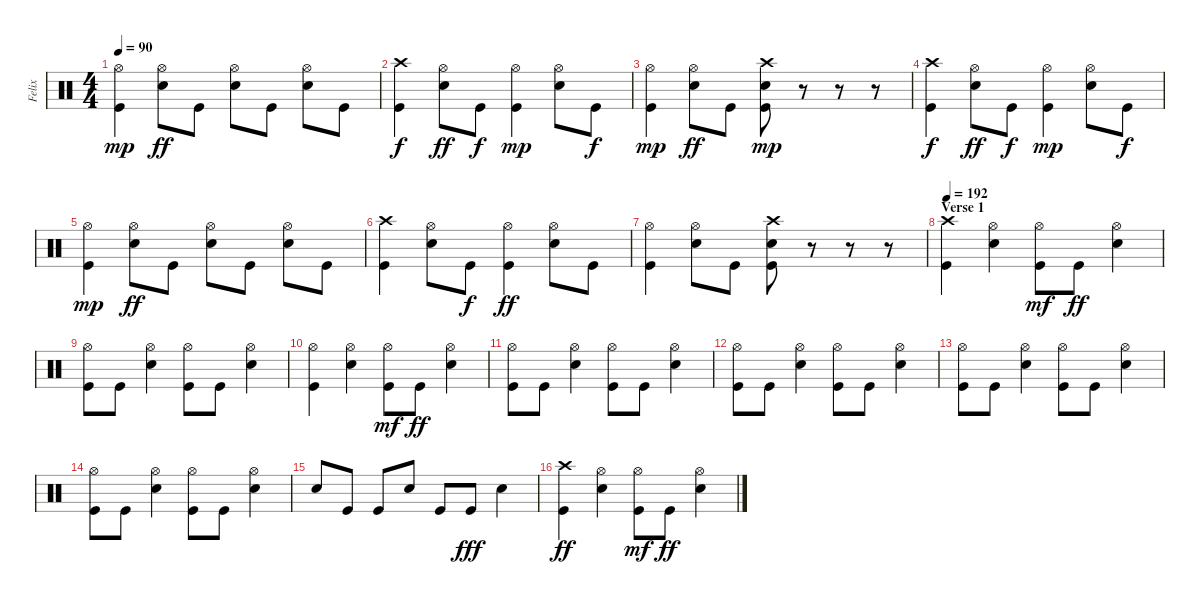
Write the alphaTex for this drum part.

\track ("Felix" "Felix") {instrument percussion}
\staff {score}
\articulation defaults
\ts (4 4)
\tempo 90
\clef neutral
\ks c
("Hi-Hat (open)" "Kick (hit)").4{dy mp} ("Hi-Hat (open)" "Snare (hit) 2").8{dy ff} "Kick (hit)".8 ("Hi-Hat (open)" "Snare (hit) 2").8 "Kick (hit)".8 ("Hi-Hat (open)" "Snare (hit) 2").8 "Kick (hit)".8 |
("Crash high (hit)" "Kick (hit)").4{dy f} ("Hi-Hat (open)" "Snare (hit) 2").8{dy ff} "Kick (hit)".8{dy f} ("Hi-Hat (open)" "Kick (hit)").4{dy mp} ("Hi-Hat (open)" "Snare (hit) 2").8 "Kick (hit)".8{dy f} |
("Hi-Hat (open)" "Kick (hit)").4{dy mp} ("Hi-Hat (open)" "Snare (hit) 2").8{dy ff} "Kick (hit)".8 ("Crash high (hit)" "Snare (hit) 2" "Kick (hit)").8{dy mp} r.8 r.8 r.8 |
("Crash high (hit)" "Kick (hit)").4{dy f} ("Hi-Hat (open)" "Snare (hit) 2").8{dy ff} "Kick (hit)".8{dy f} ("Hi-Hat (open)" "Kick (hit)").4{dy mp} ("Hi-Hat (open)" "Snare (hit) 2").8 "Kick (hit)".8{dy f} |
("Hi-Hat (open)" "Kick (hit)").4{dy mp} ("Hi-Hat (open)" "Snare (hit) 2").8{dy ff} "Kick (hit)".8 ("Hi-Hat (open)" "Snare (hit) 2").8 "Kick (hit)".8 ("Hi-Hat (open)" "Snare (hit) 2").8 "Kick (hit)".8 |
("Crash high (hit)" "Kick (hit)").4 ("Hi-Hat (open)" "Snare (hit) 2").8 "Kick (hit)".8{dy f} ("Hi-Hat (open)" "Kick (hit)").4{dy ff} ("Hi-Hat (open)" "Snare (hit) 2").8 "Kick (hit)".8 |
("Hi-Hat (open)" "Kick (hit)").4 ("Hi-Hat (open)" "Snare (hit) 2").8 "Kick (hit)".8 ("Crash high (hit)" "Snare (hit) 2" "Kick (hit)").8 r.8 r.8 r.8 |
\section ("" "Verse 1")
\tempo 192
("Crash high (hit)" "Kick (hit)").4 ("Hi-Hat (open)" "Snare (hit) 2").4 ("Hi-Hat (open)" "Kick (hit)").8{dy mf} "Kick (hit)".8{dy ff} ("Hi-Hat (open)" "Snare (hit) 2").4 |
("Hi-Hat (open)" "Kick (hit)").8 "Kick (hit)".8 ("Hi-Hat (open)" "Snare (hit) 2").4 ("Hi-Hat (open)" "Kick (hit)").8 "Kick (hit)".8 ("Hi-Hat (open)" "Snare (hit) 2").4 |
("Hi-Hat (open)" "Kick (hit)").4 ("Hi-Hat (open)" "Snare (hit) 2").4 ("Hi-Hat (open)" "Kick (hit)").8{dy mf} "Kick (hit)".8{dy ff} ("Hi-Hat (open)" "Snare (hit) 2").4 |
("Hi-Hat (open)" "Kick (hit)").8 "Kick (hit)".8 ("Hi-Hat (open)" "Snare (hit) 2").4 ("Hi-Hat (open)" "Kick (hit)").8 "Kick (hit)".8 ("Hi-Hat (open)" "Snare (hit) 2").4 |
("Hi-Hat (open)" "Kick (hit)").8 "Kick (hit)".8 ("Hi-Hat (open)" "Snare (hit) 2").4 ("Hi-Hat (open)" "Kick (hit)").8 "Kick (hit)".8 ("Hi-Hat (open)" "Snare (hit) 2").4 |
("Hi-Hat (open)" "Kick (hit)").8 "Kick (hit)".8 ("Hi-Hat (open)" "Snare (hit) 2").4 ("Hi-Hat (open)" "Kick (hit)").8 "Kick (hit)".8 ("Hi-Hat (open)" "Snare (hit) 2").4 |
("Hi-Hat (open)" "Kick (hit)").8 "Kick (hit)".8 ("Hi-Hat (open)" "Snare (hit) 2").4 ("Hi-Hat (open)" "Kick (hit)").8 "Kick (hit)".8 ("Hi-Hat (open)" "Snare (hit) 2").4 |
"Snare (hit) 2".8 "Kick (hit)".8 "Kick (hit)".8 "Snare (hit) 2".8 "Kick (hit)".8 "Kick (hit)".8{dy fff} "Snare (hit) 2".4 |
("Crash high (hit)" "Kick (hit)").4{dy ff} ("Hi-Hat (open)" "Snare (hit) 2").4 ("Hi-Hat (open)" "Kick (hit)").8{dy mf} "Kick (hit)".8{dy ff} ("Hi-Hat (open)" "Snare (hit) 2").4
